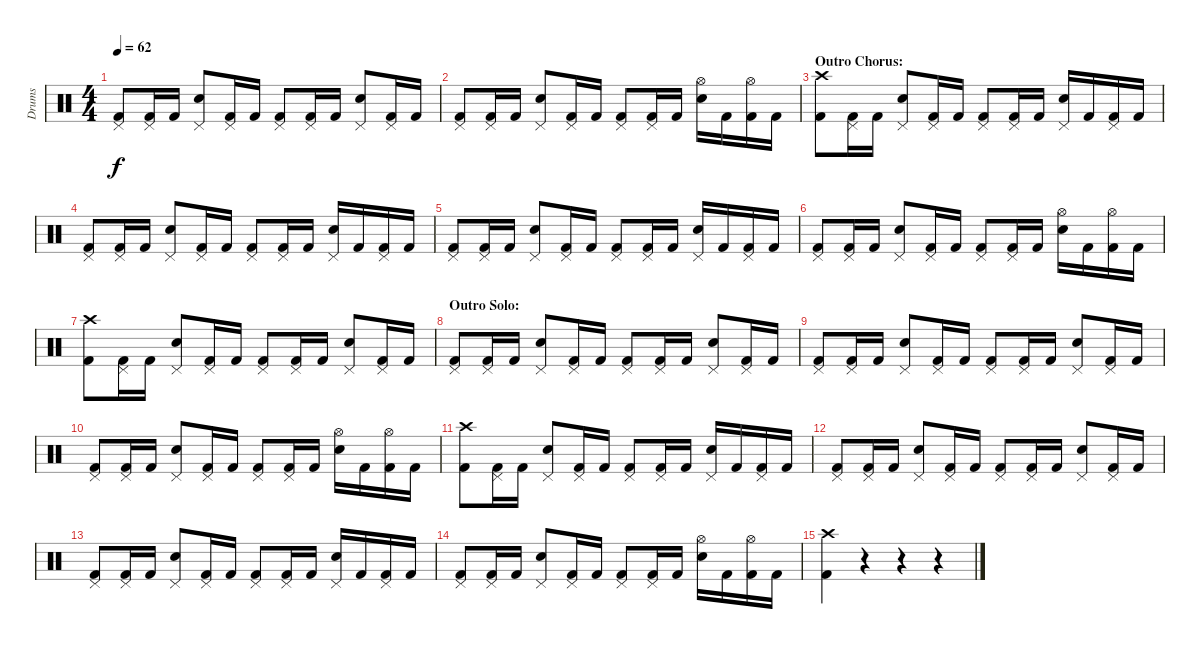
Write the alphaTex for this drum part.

\track ("Drums" "Drums") {instrument percussion}
\staff {score}
\articulation defaults
\ts (4 4)
\tempo 62
\clef neutral
\ks c
("Pedal Hi-Hat (hit)" "Kick (hit) 2").8{dy f} ("Pedal Hi-Hat (hit)" "Kick (hit) 2").16 "Kick (hit) 2".16 ("Pedal Hi-Hat (hit)" "Snare (hit) 2").8 ("Pedal Hi-Hat (hit)" "Kick (hit) 2").16 "Kick (hit) 2".16 ("Pedal Hi-Hat (hit)" "Kick (hit) 2").8 ("Pedal Hi-Hat (hit)" "Kick (hit) 2").16 "Kick (hit) 2".16 ("Pedal Hi-Hat (hit)" "Snare (hit) 2").8 ("Pedal Hi-Hat (hit)" "Kick (hit) 2").16 "Kick (hit) 2".16 |
("Pedal Hi-Hat (hit)" "Kick (hit) 2").8 ("Pedal Hi-Hat (hit)" "Kick (hit) 2").16 "Kick (hit) 2".16 ("Pedal Hi-Hat (hit)" "Snare (hit) 2").8 ("Pedal Hi-Hat (hit)" "Kick (hit) 2").16 "Kick (hit) 2".16 ("Pedal Hi-Hat (hit)" "Kick (hit) 2").8 ("Pedal Hi-Hat (hit)" "Kick (hit) 2").16 "Kick (hit) 2".16 ("Hi-Hat (open)" "Snare (hit) 2").16 "Kick (hit) 2".16 ("Hi-Hat (open)" "Kick (hit) 2").16 "Kick (hit) 2".16 |
\section ("" "Outro Chorus:")
("Crash high (hit)" "Kick (hit) 2").8 ("Pedal Hi-Hat (hit)" "Kick (hit) 2").16 "Kick (hit) 2".16 ("Pedal Hi-Hat (hit)" "Snare (hit) 2").8 ("Pedal Hi-Hat (hit)" "Kick (hit) 2").16 "Kick (hit) 2".16 ("Pedal Hi-Hat (hit)" "Kick (hit) 2").8 ("Pedal Hi-Hat (hit)" "Kick (hit) 2").16 "Kick (hit) 2".16 ("Pedal Hi-Hat (hit)" "Snare (hit) 2").16 "Kick (hit) 2".16 ("Pedal Hi-Hat (hit)" "Kick (hit) 2").16 "Kick (hit) 2".16 |
("Pedal Hi-Hat (hit)" "Kick (hit) 2").8 ("Pedal Hi-Hat (hit)" "Kick (hit) 2").16 "Kick (hit) 2".16 ("Pedal Hi-Hat (hit)" "Snare (hit) 2").8 ("Pedal Hi-Hat (hit)" "Kick (hit) 2").16 "Kick (hit) 2".16 ("Pedal Hi-Hat (hit)" "Kick (hit) 2").8 ("Pedal Hi-Hat (hit)" "Kick (hit) 2").16 "Kick (hit) 2".16 ("Pedal Hi-Hat (hit)" "Snare (hit) 2").16 "Kick (hit) 2".16 ("Pedal Hi-Hat (hit)" "Kick (hit) 2").16 "Kick (hit) 2".16 |
("Pedal Hi-Hat (hit)" "Kick (hit) 2").8 ("Pedal Hi-Hat (hit)" "Kick (hit) 2").16 "Kick (hit) 2".16 ("Pedal Hi-Hat (hit)" "Snare (hit) 2").8 ("Pedal Hi-Hat (hit)" "Kick (hit) 2").16 "Kick (hit) 2".16 ("Pedal Hi-Hat (hit)" "Kick (hit) 2").8 ("Pedal Hi-Hat (hit)" "Kick (hit) 2").16 "Kick (hit) 2".16 ("Pedal Hi-Hat (hit)" "Snare (hit) 2").16 "Kick (hit) 2".16 ("Pedal Hi-Hat (hit)" "Kick (hit) 2").16 "Kick (hit) 2".16 |
("Pedal Hi-Hat (hit)" "Kick (hit) 2").8 ("Pedal Hi-Hat (hit)" "Kick (hit) 2").16 "Kick (hit) 2".16 ("Pedal Hi-Hat (hit)" "Snare (hit) 2").8 ("Pedal Hi-Hat (hit)" "Kick (hit) 2").16 "Kick (hit) 2".16 ("Pedal Hi-Hat (hit)" "Kick (hit) 2").8 ("Pedal Hi-Hat (hit)" "Kick (hit) 2").16 "Kick (hit) 2".16 ("Hi-Hat (open)" "Snare (hit) 2").16 "Kick (hit) 2".16 ("Hi-Hat (open)" "Kick (hit) 2").16 "Kick (hit) 2".16 |
("Crash high (hit)" "Kick (hit) 2").8 ("Pedal Hi-Hat (hit)" "Kick (hit) 2").16 "Kick (hit) 2".16 ("Pedal Hi-Hat (hit)" "Snare (hit) 2").8 ("Pedal Hi-Hat (hit)" "Kick (hit) 2").16 "Kick (hit) 2".16 ("Pedal Hi-Hat (hit)" "Kick (hit) 2").8 ("Pedal Hi-Hat (hit)" "Kick (hit) 2").16 "Kick (hit) 2".16 ("Pedal Hi-Hat (hit)" "Snare (hit) 2").8 ("Pedal Hi-Hat (hit)" "Kick (hit) 2").16 "Kick (hit) 2".16 |
\section ("" "Outro Solo:")
("Pedal Hi-Hat (hit)" "Kick (hit) 2").8 ("Pedal Hi-Hat (hit)" "Kick (hit) 2").16 "Kick (hit) 2".16 ("Pedal Hi-Hat (hit)" "Snare (hit) 2").8 ("Pedal Hi-Hat (hit)" "Kick (hit) 2").16 "Kick (hit) 2".16 ("Pedal Hi-Hat (hit)" "Kick (hit) 2").8 ("Pedal Hi-Hat (hit)" "Kick (hit) 2").16 "Kick (hit) 2".16 ("Pedal Hi-Hat (hit)" "Snare (hit) 2").8 ("Pedal Hi-Hat (hit)" "Kick (hit) 2").16 "Kick (hit) 2".16 |
("Pedal Hi-Hat (hit)" "Kick (hit) 2").8 ("Pedal Hi-Hat (hit)" "Kick (hit) 2").16 "Kick (hit) 2".16 ("Pedal Hi-Hat (hit)" "Snare (hit) 2").8 ("Pedal Hi-Hat (hit)" "Kick (hit) 2").16 "Kick (hit) 2".16 ("Pedal Hi-Hat (hit)" "Kick (hit) 2").8 ("Pedal Hi-Hat (hit)" "Kick (hit) 2").16 "Kick (hit) 2".16 ("Pedal Hi-Hat (hit)" "Snare (hit) 2").8 ("Pedal Hi-Hat (hit)" "Kick (hit) 2").16 "Kick (hit) 2".16 |
("Pedal Hi-Hat (hit)" "Kick (hit) 2").8 ("Pedal Hi-Hat (hit)" "Kick (hit) 2").16 "Kick (hit) 2".16 ("Pedal Hi-Hat (hit)" "Snare (hit) 2").8 ("Pedal Hi-Hat (hit)" "Kick (hit) 2").16 "Kick (hit) 2".16 ("Pedal Hi-Hat (hit)" "Kick (hit) 2").8 ("Pedal Hi-Hat (hit)" "Kick (hit) 2").16 "Kick (hit) 2".16 ("Hi-Hat (open)" "Snare (hit) 2").16 "Kick (hit) 2".16 ("Hi-Hat (open)" "Kick (hit) 2").16 "Kick (hit) 2".16 |
("Crash high (hit)" "Kick (hit) 2").8 ("Pedal Hi-Hat (hit)" "Kick (hit) 2").16 "Kick (hit) 2".16 ("Pedal Hi-Hat (hit)" "Snare (hit) 2").8 ("Pedal Hi-Hat (hit)" "Kick (hit) 2").16 "Kick (hit) 2".16 ("Pedal Hi-Hat (hit)" "Kick (hit) 2").8 ("Pedal Hi-Hat (hit)" "Kick (hit) 2").16 "Kick (hit) 2".16 ("Pedal Hi-Hat (hit)" "Snare (hit) 2").16 "Kick (hit) 2".16 ("Pedal Hi-Hat (hit)" "Kick (hit) 2").16 "Kick (hit) 2".16 |
("Pedal Hi-Hat (hit)" "Kick (hit) 2").8 ("Pedal Hi-Hat (hit)" "Kick (hit) 2").16 "Kick (hit) 2".16 ("Pedal Hi-Hat (hit)" "Snare (hit) 2").8 ("Pedal Hi-Hat (hit)" "Kick (hit) 2").16 "Kick (hit) 2".16 ("Pedal Hi-Hat (hit)" "Kick (hit) 2").8 ("Pedal Hi-Hat (hit)" "Kick (hit) 2").16 "Kick (hit) 2".16 ("Pedal Hi-Hat (hit)" "Snare (hit) 2").8 ("Pedal Hi-Hat (hit)" "Kick (hit) 2").16 "Kick (hit) 2".16 |
("Pedal Hi-Hat (hit)" "Kick (hit) 2").8 ("Pedal Hi-Hat (hit)" "Kick (hit) 2").16 "Kick (hit) 2".16 ("Pedal Hi-Hat (hit)" "Snare (hit) 2").8 ("Pedal Hi-Hat (hit)" "Kick (hit) 2").16 "Kick (hit) 2".16 ("Pedal Hi-Hat (hit)" "Kick (hit) 2").8 ("Pedal Hi-Hat (hit)" "Kick (hit) 2").16 "Kick (hit) 2".16 ("Pedal Hi-Hat (hit)" "Snare (hit) 2").16 "Kick (hit) 2".16 ("Pedal Hi-Hat (hit)" "Kick (hit) 2").16 "Kick (hit) 2".16 |
("Pedal Hi-Hat (hit)" "Kick (hit) 2").8 ("Pedal Hi-Hat (hit)" "Kick (hit) 2").16 "Kick (hit) 2".16 ("Pedal Hi-Hat (hit)" "Snare (hit) 2").8 ("Pedal Hi-Hat (hit)" "Kick (hit) 2").16 "Kick (hit) 2".16 ("Pedal Hi-Hat (hit)" "Kick (hit) 2").8 ("Pedal Hi-Hat (hit)" "Kick (hit) 2").16 "Kick (hit) 2".16 ("Hi-Hat (open)" "Snare (hit) 2").16 "Kick (hit) 2".16 ("Hi-Hat (open)" "Kick (hit) 2").16 "Kick (hit) 2".16 |
("Crash high (hit)" "Kick (hit) 2").4 r.4 r.4 r.4
